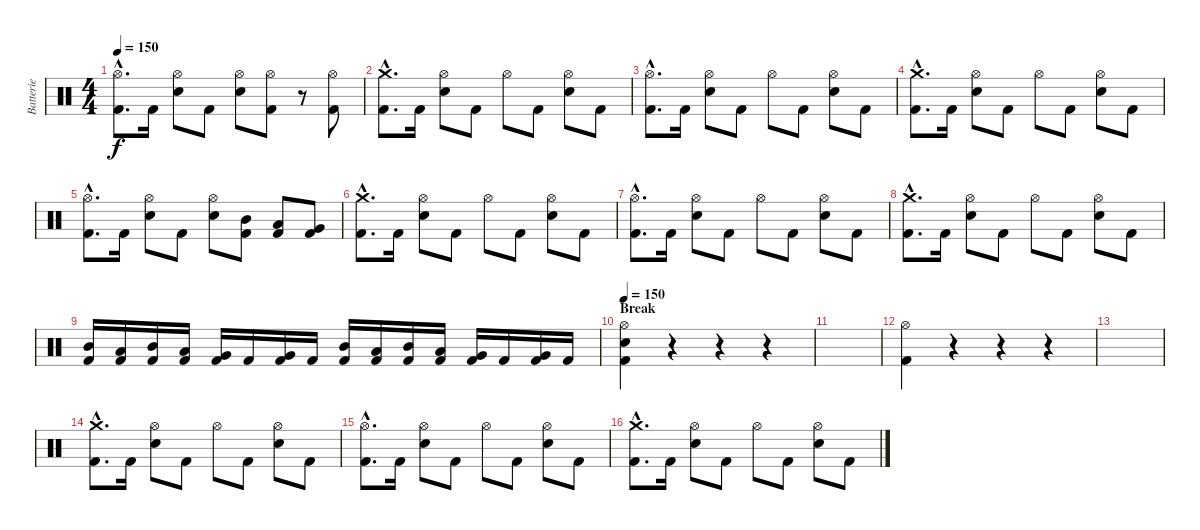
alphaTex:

\track ("Batterie" "Batterie") {instrument percussion}
\staff {score}
\articulation defaults
\ts (4 4)
\tempo 150
\clef neutral
\ks c
("Hi-Hat (open)"{hac} "Kick (hit) 2"{hac}).8{d dy f} "Kick (hit) 2".16 ("Hi-Hat (open)" "Electric Snare (hit)").8 "Kick (hit) 2".8 ("Hi-Hat (open)" "Electric Snare (hit)").8 ("Hi-Hat (open)" "Kick (hit) 2").8 r.8 ("Hi-Hat (open)" "Kick (hit) 2").8 |
("Crash medium (hit)"{hac} "Kick (hit) 2"{hac}).8{d} "Kick (hit) 2".16 ("Hi-Hat (open)" "Electric Snare (hit)").8 "Kick (hit) 2".8 "Hi-Hat (open)".8 "Kick (hit) 2".8 ("Hi-Hat (open)" "Electric Snare (hit)").8 "Kick (hit) 2".8 |
("Hi-Hat (open)"{hac} "Kick (hit) 2"{hac}).8{d} "Kick (hit) 2".16 ("Hi-Hat (open)" "Electric Snare (hit)").8 "Kick (hit) 2".8 "Hi-Hat (open)".8 "Kick (hit) 2".8 ("Hi-Hat (open)" "Electric Snare (hit)").8 "Kick (hit) 2".8 |
("Crash medium (hit)"{hac} "Kick (hit) 2"{hac}).8{d} "Kick (hit) 2".16 ("Hi-Hat (open)" "Electric Snare (hit)").8 "Kick (hit) 2".8 "Hi-Hat (open)".8 "Kick (hit) 2".8 ("Hi-Hat (open)" "Electric Snare (hit)").8 "Kick (hit) 2".8 |
("Hi-Hat (open)"{hac} "Kick (hit) 2"{hac}).8{d} "Kick (hit) 2".16 ("Hi-Hat (open)" "Electric Snare (hit)").8 "Kick (hit) 2".8 ("Hi-Hat (open)" "Electric Snare (hit)").8 ("Mid Tom (hit)" "Kick (hit) 2").8 ("Low Tom (hit)" "Kick (hit) 2").8 ("Very Low Tom (hit)" "Kick (hit) 2").8 |
("Crash medium (hit)"{hac} "Kick (hit) 2"{hac}).8{d} "Kick (hit) 2".16 ("Hi-Hat (open)" "Electric Snare (hit)").8 "Kick (hit) 2".8 "Hi-Hat (open)".8 "Kick (hit) 2".8 ("Hi-Hat (open)" "Electric Snare (hit)").8 "Kick (hit) 2".8 |
("Hi-Hat (open)"{hac} "Kick (hit) 2"{hac}).8{d} "Kick (hit) 2".16 ("Hi-Hat (open)" "Electric Snare (hit)").8 "Kick (hit) 2".8 "Hi-Hat (open)".8 "Kick (hit) 2".8 ("Hi-Hat (open)" "Electric Snare (hit)").8 "Kick (hit) 2".8 |
("Crash medium (hit)"{hac} "Kick (hit) 2"{hac}).8{d} "Kick (hit) 2".16 ("Hi-Hat (open)" "Electric Snare (hit)").8 "Kick (hit) 2".8 "Hi-Hat (open)".8 "Kick (hit) 2".8 ("Hi-Hat (open)" "Electric Snare (hit)").8 "Kick (hit) 2".8 |
("Mid Tom (hit)" "Kick (hit) 2").16 ("Low Tom (hit)" "Kick (hit) 2").16 ("Mid Tom (hit)" "Kick (hit) 2").16 ("Low Tom (hit)" "Kick (hit) 2").16 ("Very Low Tom (hit)" "Kick (hit) 2").16 "Kick (hit) 2".16 ("Very Low Tom (hit)" "Kick (hit) 2").16 "Kick (hit) 2".16 ("Mid Tom (hit)" "Kick (hit) 2").16 ("Low Tom (hit)" "Kick (hit) 2").16 ("Mid Tom (hit)" "Kick (hit) 2").16 ("Low Tom (hit)" "Kick (hit) 2").16 ("Very Low Tom (hit)" "Kick (hit) 2").16 "Kick (hit) 2".16 ("Very Low Tom (hit)" "Kick (hit) 2").16 "Kick (hit) 2".16 |
\section ("" "Break")
\tempo 150
("Hi-Hat (open)" "Electric Snare (hit)" "Kick (hit) 2").4 r.4 r.4 r.4 |
|
("Hi-Hat (open)" "Kick (hit) 2").4 r.4 r.4 r.4 |
|
("Crash medium (hit)"{hac} "Kick (hit) 2"{hac}).8{d} "Kick (hit) 2".16 ("Hi-Hat (open)" "Electric Snare (hit)").8 "Kick (hit) 2".8 "Hi-Hat (open)".8 "Kick (hit) 2".8 ("Hi-Hat (open)" "Electric Snare (hit)").8 "Kick (hit) 2".8 |
("Hi-Hat (open)"{hac} "Kick (hit) 2"{hac}).8{d} "Kick (hit) 2".16 ("Hi-Hat (open)" "Electric Snare (hit)").8 "Kick (hit) 2".8 "Hi-Hat (open)".8 "Kick (hit) 2".8 ("Hi-Hat (open)" "Electric Snare (hit)").8 "Kick (hit) 2".8 |
("Crash medium (hit)"{hac} "Kick (hit) 2"{hac}).8{d} "Kick (hit) 2".16 ("Hi-Hat (open)" "Electric Snare (hit)").8 "Kick (hit) 2".8 "Hi-Hat (open)".8 "Kick (hit) 2".8 ("Hi-Hat (open)" "Electric Snare (hit)").8 "Kick (hit) 2".8
